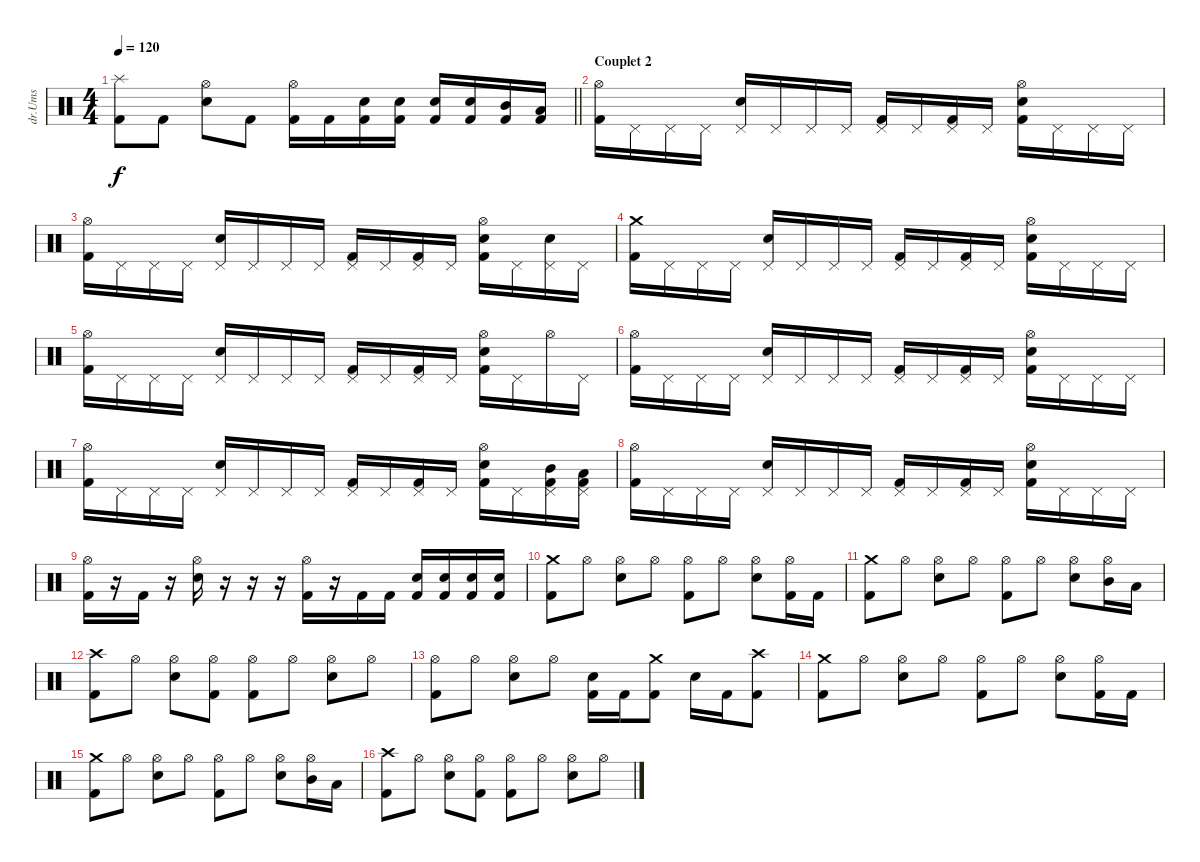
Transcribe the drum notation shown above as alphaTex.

\track ("dr.Ums" "dr.Ums") {instrument percussion}
\staff {score}
\articulation defaults
\ts (4 4)
\tempo 120
\clef neutral
\barLineRight lightlight
\ks c
("Kick (hit) 2" "Splash (hit)").8{dy f} "Kick (hit) 2".8 ("Snare (hit) 2" "Hi-Hat (open)").8 "Kick (hit) 2".8 ("Kick (hit) 2" "Hi-Hat (open)").16 "Kick (hit) 2".16 ("Snare (hit) 2" "Kick (hit) 2").16 ("Snare (hit) 2" "Kick (hit) 2").16 ("Snare (hit) 2" "Kick (hit) 2").16 ("Snare (hit) 2" "Kick (hit) 2").16 ("Mid Tom (hit)" "Kick (hit) 2").16 ("Low Tom (hit)" "Kick (hit) 2").16 |
\section ("" "Couplet 2")
("Hi-Hat (open)" "Kick (hit) 2").16 "Pedal Hi-Hat (hit)".16 "Pedal Hi-Hat (hit)".16 "Pedal Hi-Hat (hit)".16 ("Pedal Hi-Hat (hit)" "Snare (hit) 2").16 "Pedal Hi-Hat (hit)".16 "Pedal Hi-Hat (hit)".16 "Pedal Hi-Hat (hit)".16 ("Pedal Hi-Hat (hit)" "Kick (hit) 2").16 "Pedal Hi-Hat (hit)".16 ("Pedal Hi-Hat (hit)" "Kick (hit) 2").16 "Pedal Hi-Hat (hit)".16 ("Hi-Hat (open)" "Snare (hit) 2" "Kick (hit) 2").16 "Pedal Hi-Hat (hit)".16 "Pedal Hi-Hat (hit)".16 "Pedal Hi-Hat (hit)".16 |
("Hi-Hat (open)" "Kick (hit) 2").16 "Pedal Hi-Hat (hit)".16 "Pedal Hi-Hat (hit)".16 "Pedal Hi-Hat (hit)".16 ("Pedal Hi-Hat (hit)" "Snare (hit) 2").16 "Pedal Hi-Hat (hit)".16 "Pedal Hi-Hat (hit)".16 "Pedal Hi-Hat (hit)".16 ("Pedal Hi-Hat (hit)" "Kick (hit) 2").16 "Pedal Hi-Hat (hit)".16 ("Pedal Hi-Hat (hit)" "Kick (hit) 2").16 "Pedal Hi-Hat (hit)".16 ("Hi-Hat (open)" "Snare (hit) 2" "Kick (hit) 2").16 "Pedal Hi-Hat (hit)".16 ("Pedal Hi-Hat (hit)" "Snare (hit) 2").16 "Pedal Hi-Hat (hit)".16 |
("Crash medium (hit)" "Kick (hit) 2").16 "Pedal Hi-Hat (hit)".16 "Pedal Hi-Hat (hit)".16 "Pedal Hi-Hat (hit)".16 ("Pedal Hi-Hat (hit)" "Snare (hit) 2").16 "Pedal Hi-Hat (hit)".16 "Pedal Hi-Hat (hit)".16 "Pedal Hi-Hat (hit)".16 ("Pedal Hi-Hat (hit)" "Kick (hit) 2").16 "Pedal Hi-Hat (hit)".16 ("Pedal Hi-Hat (hit)" "Kick (hit) 2").16 "Pedal Hi-Hat (hit)".16 ("Hi-Hat (open)" "Snare (hit) 2" "Kick (hit) 2").16 "Pedal Hi-Hat (hit)".16 "Pedal Hi-Hat (hit)".16 "Pedal Hi-Hat (hit)".16 |
("Hi-Hat (open)" "Kick (hit) 2").16 "Pedal Hi-Hat (hit)".16 "Pedal Hi-Hat (hit)".16 "Pedal Hi-Hat (hit)".16 ("Pedal Hi-Hat (hit)" "Snare (hit) 2").16 "Pedal Hi-Hat (hit)".16 "Pedal Hi-Hat (hit)".16 "Pedal Hi-Hat (hit)".16 ("Pedal Hi-Hat (hit)" "Kick (hit) 2").16 "Pedal Hi-Hat (hit)".16 ("Pedal Hi-Hat (hit)" "Kick (hit) 2").16 "Pedal Hi-Hat (hit)".16 ("Hi-Hat (open)" "Snare (hit) 2" "Kick (hit) 2").16 "Pedal Hi-Hat (hit)".16 "Hi-Hat (open)".16 "Pedal Hi-Hat (hit)".16 |
("Hi-Hat (open)" "Kick (hit) 2").16 "Pedal Hi-Hat (hit)".16 "Pedal Hi-Hat (hit)".16 "Pedal Hi-Hat (hit)".16 ("Pedal Hi-Hat (hit)" "Snare (hit) 2").16 "Pedal Hi-Hat (hit)".16 "Pedal Hi-Hat (hit)".16 "Pedal Hi-Hat (hit)".16 ("Pedal Hi-Hat (hit)" "Kick (hit) 2").16 "Pedal Hi-Hat (hit)".16 ("Pedal Hi-Hat (hit)" "Kick (hit) 2").16 "Pedal Hi-Hat (hit)".16 ("Hi-Hat (open)" "Snare (hit) 2" "Kick (hit) 2").16 "Pedal Hi-Hat (hit)".16 "Pedal Hi-Hat (hit)".16 "Pedal Hi-Hat (hit)".16 |
("Hi-Hat (open)" "Kick (hit) 2").16 "Pedal Hi-Hat (hit)".16 "Pedal Hi-Hat (hit)".16 "Pedal Hi-Hat (hit)".16 ("Pedal Hi-Hat (hit)" "Snare (hit) 2").16 "Pedal Hi-Hat (hit)".16 "Pedal Hi-Hat (hit)".16 "Pedal Hi-Hat (hit)".16 ("Pedal Hi-Hat (hit)" "Kick (hit) 2").16 "Pedal Hi-Hat (hit)".16 ("Pedal Hi-Hat (hit)" "Kick (hit) 2").16 "Pedal Hi-Hat (hit)".16 ("Hi-Hat (open)" "Snare (hit) 2" "Kick (hit) 2").16 "Pedal Hi-Hat (hit)".16 ("Pedal Hi-Hat (hit)" "Mid Tom (hit)" "Kick (hit) 2").16 ("Pedal Hi-Hat (hit)" "Low Tom (hit)" "Kick (hit) 2").16 |
("Hi-Hat (open)" "Kick (hit) 2").16 "Pedal Hi-Hat (hit)".16 "Pedal Hi-Hat (hit)".16 "Pedal Hi-Hat (hit)".16 ("Pedal Hi-Hat (hit)" "Snare (hit) 2").16 "Pedal Hi-Hat (hit)".16 "Pedal Hi-Hat (hit)".16 "Pedal Hi-Hat (hit)".16 ("Pedal Hi-Hat (hit)" "Kick (hit) 2").16 "Pedal Hi-Hat (hit)".16 ("Pedal Hi-Hat (hit)" "Kick (hit) 2").16 "Pedal Hi-Hat (hit)".16 ("Hi-Hat (open)" "Snare (hit) 2" "Kick (hit) 2").16 "Pedal Hi-Hat (hit)".16 "Pedal Hi-Hat (hit)".16 "Pedal Hi-Hat (hit)".16 |
("Hi-Hat (open)" "Kick (hit) 2").16 r.16 "Kick (hit) 2".16 r.16 ("Hi-Hat (open)" "Snare (hit) 2").16 r.16 r.16 r.16 ("Hi-Hat (open)" "Kick (hit) 2").16 r.16 "Kick (hit) 2".16 "Kick (hit) 2".16 ("Snare (hit) 2" "Kick (hit) 2").16 ("Snare (hit) 2" "Kick (hit) 2").16 ("Snare (hit) 2" "Kick (hit) 2").16 ("Snare (hit) 2" "Kick (hit) 2").16 |
("Crash medium (hit)" "Kick (hit) 2").8 "Hi-Hat (open)".8 ("Hi-Hat (open)" "Snare (hit) 2").8 "Hi-Hat (open)".8 ("Hi-Hat (open)" "Kick (hit) 2").8 "Hi-Hat (open)".8 ("Hi-Hat (open)" "Snare (hit) 2").8 ("Hi-Hat (open)" "Kick (hit) 2").16 "Kick (hit) 2".16 |
("Crash medium (hit)" "Kick (hit) 2").8 "Hi-Hat (open)".8 ("Hi-Hat (open)" "Snare (hit) 2").8 "Hi-Hat (open)".8 ("Hi-Hat (open)" "Kick (hit) 2").8 "Hi-Hat (open)".8 ("Hi-Hat (open)" "Snare (hit) 2").8 ("Hi-Hat (open)" "Mid Tom (hit)").16 "Low Tom (hit)".16 |
("Crash high (hit)" "Kick (hit) 2").8 "Hi-Hat (open)".8 ("Hi-Hat (open)" "Snare (hit) 2").8 ("Hi-Hat (open)" "Kick (hit) 2").8 ("Hi-Hat (open)" "Kick (hit) 2").8 "Hi-Hat (open)".8 ("Hi-Hat (open)" "Snare (hit) 2").8 "Hi-Hat (open)".8 |
("Hi-Hat (open)" "Kick (hit) 2").8 "Hi-Hat (open)".8 ("Hi-Hat (open)" "Snare (hit) 2").8 "Hi-Hat (open)".8 ("Snare (hit) 2" "Kick (hit) 2").16 "Kick (hit) 2".16 ("Crash medium (hit)" "Kick (hit) 2").8 "Snare (hit) 2".16 "Kick (hit) 2".16 ("Kick (hit) 2" "Crash high (hit)").8 |
("Crash medium (hit)" "Kick (hit) 2").8 "Hi-Hat (open)".8 ("Hi-Hat (open)" "Snare (hit) 2").8 "Hi-Hat (open)".8 ("Hi-Hat (open)" "Kick (hit) 2").8 "Hi-Hat (open)".8 ("Hi-Hat (open)" "Snare (hit) 2").8 ("Hi-Hat (open)" "Kick (hit) 2").16 "Kick (hit) 2".16 |
("Crash medium (hit)" "Kick (hit) 2").8 "Hi-Hat (open)".8 ("Hi-Hat (open)" "Snare (hit) 2").8 "Hi-Hat (open)".8 ("Hi-Hat (open)" "Kick (hit) 2").8 "Hi-Hat (open)".8 ("Hi-Hat (open)" "Snare (hit) 2").8 ("Hi-Hat (open)" "Mid Tom (hit)").16 "Low Tom (hit)".16 |
("Crash high (hit)" "Kick (hit) 2").8 "Hi-Hat (open)".8 ("Hi-Hat (open)" "Snare (hit) 2").8 ("Hi-Hat (open)" "Kick (hit) 2").8 ("Hi-Hat (open)" "Kick (hit) 2").8 "Hi-Hat (open)".8 ("Hi-Hat (open)" "Snare (hit) 2").8 "Hi-Hat (open)".8
